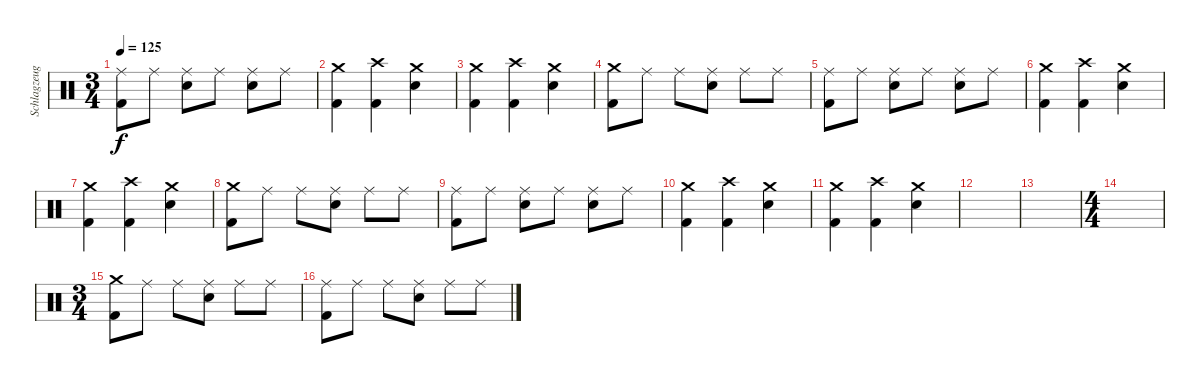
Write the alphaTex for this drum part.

\track ("Schlagzeug" "Schlagzeug") {instrument percussion}
\staff {score}
\articulation defaults
\ts (3 4)
\tempo 125
\clef neutral
\ks c
("Ride (middle)" "Kick (hit) 2").8{dy f} "Ride (middle)".8 ("Ride (middle)" "Snare (hit) 2").8 "Ride (middle)".8 ("Ride (middle)" "Snare (hit) 2").8 "Ride (middle)".8 |
("Crash medium (hit)" "Kick (hit) 2").4 ("Crash high (hit)" "Kick (hit) 2").4 ("Crash medium (hit)" "Snare (hit) 2").4 |
("Crash medium (hit)" "Kick (hit) 2").4 ("Crash high (hit)" "Kick (hit) 2").4 ("Crash medium (hit)" "Snare (hit) 2").4 |
("Crash medium (hit)" "Kick (hit) 2").8 "Ride (middle)".8 "Ride (middle)".8 ("Ride (middle)" "Snare (hit) 2").8 "Ride (middle)".8 "Ride (middle)".8 |
("Ride (middle)" "Kick (hit) 2").8 "Ride (middle)".8 ("Ride (middle)" "Snare (hit) 2").8 "Ride (middle)".8 ("Ride (middle)" "Snare (hit) 2").8 "Ride (middle)".8 |
("Crash medium (hit)" "Kick (hit) 2").4 ("Crash high (hit)" "Kick (hit) 2").4 ("Crash medium (hit)" "Snare (hit) 2").4 |
("Crash medium (hit)" "Kick (hit) 2").4 ("Crash high (hit)" "Kick (hit) 2").4 ("Crash medium (hit)" "Snare (hit) 2").4 |
("Crash medium (hit)" "Kick (hit) 2").8 "Ride (middle)".8 "Ride (middle)".8 ("Ride (middle)" "Snare (hit) 2").8 "Ride (middle)".8 "Ride (middle)".8 |
("Ride (middle)" "Kick (hit) 2").8 "Ride (middle)".8 ("Ride (middle)" "Snare (hit) 2").8 "Ride (middle)".8 ("Ride (middle)" "Snare (hit) 2").8 "Ride (middle)".8 |
("Crash medium (hit)" "Kick (hit) 2").4 ("Crash high (hit)" "Kick (hit) 2").4 ("Crash medium (hit)" "Snare (hit) 2").4 |
("Crash medium (hit)" "Kick (hit) 2").4 ("Crash high (hit)" "Kick (hit) 2").4 ("Crash medium (hit)" "Snare (hit) 2").4 |
|
|
\ts (4 4)
|
\ts (3 4)
("Crash medium (hit)" "Kick (hit) 2").8 "Ride (middle)".8 "Ride (middle)".8 ("Ride (middle)" "Snare (hit) 2").8 "Ride (middle)".8 "Ride (middle)".8 |
("Ride (middle)" "Kick (hit) 2").8 "Ride (middle)".8 "Ride (middle)".8 ("Ride (middle)" "Snare (hit) 2").8 "Ride (middle)".8 "Ride (middle)".8
